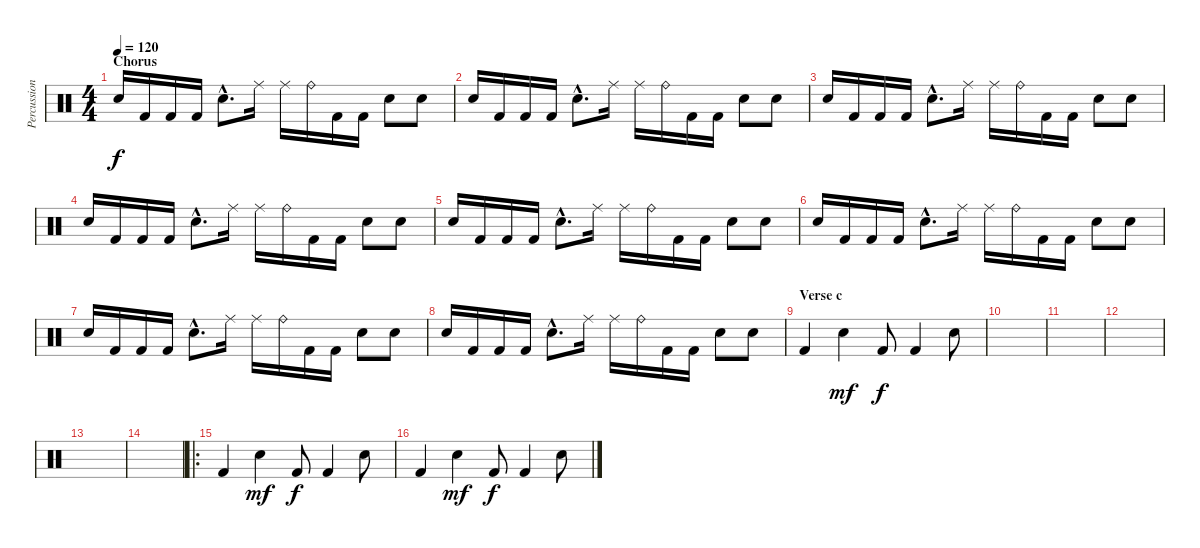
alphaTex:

\track ("Percussions" "Percussion") {instrument percussion}
\staff {score}
\articulation defaults
\ts (4 4)
\section ("" "Chorus")
\tempo 120
\clef neutral
\ks c "Snare (hit) 2".16{dy f} "Kick (hit) 2".16 "Kick (hit) 2".16 "Kick (hit) 2".16 "Snare (hit) 2"{hac}.8{d} "Ride (middle)".16 "Ride (middle)".16 "Ride (bell)".16 "Kick (hit) 2".16 "Kick (hit) 2".16 "Snare (hit) 2".8 "Snare (hit) 2".8
|
"Snare (hit) 2".16 "Kick (hit) 2".16 "Kick (hit) 2".16 "Kick (hit) 2".16 "Snare (hit) 2"{hac}.8{d} "Ride (middle)".16 "Ride (middle)".16 "Ride (bell)".16 "Kick (hit) 2".16 "Kick (hit) 2".16 "Snare (hit) 2".8 "Snare (hit) 2".8 |
"Snare (hit) 2".16 "Kick (hit) 2".16 "Kick (hit) 2".16 "Kick (hit) 2".16 "Snare (hit) 2"{hac}.8{d} "Ride (middle)".16 "Ride (middle)".16 "Ride (bell)".16 "Kick (hit) 2".16 "Kick (hit) 2".16 "Snare (hit) 2".8 "Snare (hit) 2".8 |
"Snare (hit) 2".16 "Kick (hit) 2".16 "Kick (hit) 2".16 "Kick (hit) 2".16 "Snare (hit) 2"{hac}.8{d} "Ride (middle)".16 "Ride (middle)".16 "Ride (bell)".16 "Kick (hit) 2".16 "Kick (hit) 2".16 "Snare (hit) 2".8 "Snare (hit) 2".8 |
"Snare (hit) 2".16 "Kick (hit) 2".16 "Kick (hit) 2".16 "Kick (hit) 2".16 "Snare (hit) 2"{hac}.8{d} "Ride (middle)".16 "Ride (middle)".16 "Ride (bell)".16 "Kick (hit) 2".16 "Kick (hit) 2".16 "Snare (hit) 2".8 "Snare (hit) 2".8 |
"Snare (hit) 2".16 "Kick (hit) 2".16 "Kick (hit) 2".16 "Kick (hit) 2".16 "Snare (hit) 2"{hac}.8{d} "Ride (middle)".16 "Ride (middle)".16 "Ride (bell)".16 "Kick (hit) 2".16 "Kick (hit) 2".16 "Snare (hit) 2".8 "Snare (hit) 2".8 |
"Snare (hit) 2".16 "Kick (hit) 2".16 "Kick (hit) 2".16 "Kick (hit) 2".16 "Snare (hit) 2"{hac}.8{d} "Ride (middle)".16 "Ride (middle)".16 "Ride (bell)".16 "Kick (hit) 2".16 "Kick (hit) 2".16 "Snare (hit) 2".8 "Snare (hit) 2".8 |
"Snare (hit) 2".16 "Kick (hit) 2".16 "Kick (hit) 2".16 "Kick (hit) 2".16 "Snare (hit) 2"{hac}.8{d} "Ride (middle)".16 "Ride (middle)".16 "Ride (bell)".16 "Kick (hit) 2".16 "Kick (hit) 2".16 "Snare (hit) 2".8 "Snare (hit) 2".8 |
\section ("" "Verse c")
"Kick (hit) 2".4 "Snare (hit) 2".4{dy mf} "Kick (hit) 2".8{dy f} "Kick (hit) 2".4 "Electric Snare (hit)".8 |
|
|
|
|
|
\ro
\section ("" "")
"Kick (hit) 2".4 "Snare (hit) 2".4{dy mf} "Kick (hit) 2".8{dy f} "Kick (hit) 2".4 "Electric Snare (hit)".8 |
"Kick (hit) 2".4 "Snare (hit) 2".4{dy mf} "Kick (hit) 2".8{dy f} "Kick (hit) 2".4 "Electric Snare (hit)".8
